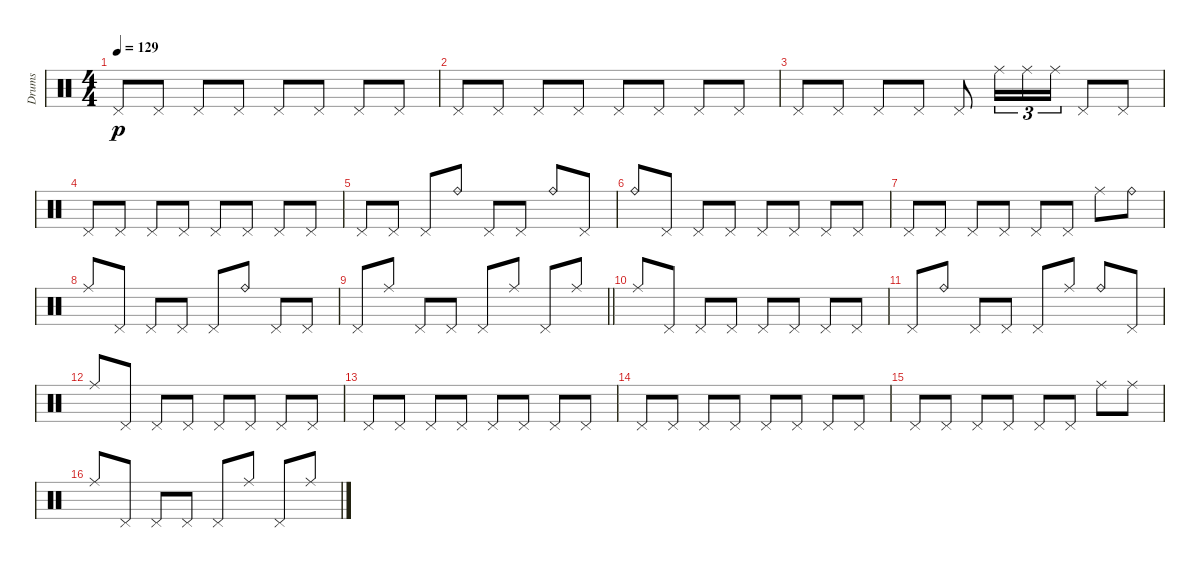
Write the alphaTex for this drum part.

\track ("Drums" "Drums") {instrument percussion}
\staff {score}
\articulation defaults
\ts (4 4)
\tempo 129
\clef neutral
\ks c "Pedal Hi-Hat (hit)".8{dy p} "Pedal Hi-Hat (hit)".8 "Pedal Hi-Hat (hit)".8 "Pedal Hi-Hat (hit)".8 "Pedal Hi-Hat (hit)".8 "Pedal Hi-Hat (hit)".8 "Pedal Hi-Hat (hit)".8 "Pedal Hi-Hat (hit)".8
|
"Pedal Hi-Hat (hit)".8 "Pedal Hi-Hat (hit)".8 "Pedal Hi-Hat (hit)".8 "Pedal Hi-Hat (hit)".8 "Pedal Hi-Hat (hit)".8 "Pedal Hi-Hat (hit)".8 "Pedal Hi-Hat (hit)".8 "Pedal Hi-Hat (hit)".8 |
"Pedal Hi-Hat (hit)".8 "Pedal Hi-Hat (hit)".8 "Pedal Hi-Hat (hit)".8 "Pedal Hi-Hat (hit)".8 "Pedal Hi-Hat (hit)".8 "Ride (middle)".16{tu (3 2)} "Ride (middle)".16{tu (3 2)} "Ride (middle)".16{tu (3 2)} "Pedal Hi-Hat (hit)".8 "Pedal Hi-Hat (hit)".8 |
"Pedal Hi-Hat (hit)".8 "Pedal Hi-Hat (hit)".8 "Pedal Hi-Hat (hit)".8 "Pedal Hi-Hat (hit)".8 "Pedal Hi-Hat (hit)".8 "Pedal Hi-Hat (hit)".8 "Pedal Hi-Hat (hit)".8 "Pedal Hi-Hat (hit)".8 |
"Pedal Hi-Hat (hit)".8 "Pedal Hi-Hat (hit)".8 "Pedal Hi-Hat (hit)".8 "Ride (bell)".8 "Pedal Hi-Hat (hit)".8 "Pedal Hi-Hat (hit)".8 "Ride (bell)".8 "Pedal Hi-Hat (hit)".8 |
"Ride (bell)".8 "Pedal Hi-Hat (hit)".8 "Pedal Hi-Hat (hit)".8 "Pedal Hi-Hat (hit)".8 "Pedal Hi-Hat (hit)".8 "Pedal Hi-Hat (hit)".8 "Pedal Hi-Hat (hit)".8 "Pedal Hi-Hat (hit)".8 |
"Pedal Hi-Hat (hit)".8 "Pedal Hi-Hat (hit)".8 "Pedal Hi-Hat (hit)".8 "Pedal Hi-Hat (hit)".8 "Pedal Hi-Hat (hit)".8 "Pedal Hi-Hat (hit)".8 "Ride (middle)".8 "Ride (bell)".8 |
"Ride (middle)".8 "Pedal Hi-Hat (hit)".8 "Pedal Hi-Hat (hit)".8 "Pedal Hi-Hat (hit)".8 "Pedal Hi-Hat (hit)".8 "Ride (bell)".8 "Pedal Hi-Hat (hit)".8 "Pedal Hi-Hat (hit)".8 |
\barLineRight lightlight "Pedal Hi-Hat (hit)".8 "Ride (middle)".8 "Pedal Hi-Hat (hit)".8 "Pedal Hi-Hat (hit)".8 "Pedal Hi-Hat (hit)".8 "Ride (middle)".8 "Pedal Hi-Hat (hit)".8 "Ride (middle)".8
|
"Ride (middle)".8 "Pedal Hi-Hat (hit)".8 "Pedal Hi-Hat (hit)".8 "Pedal Hi-Hat (hit)".8 "Pedal Hi-Hat (hit)".8 "Pedal Hi-Hat (hit)".8 "Pedal Hi-Hat (hit)".8 "Pedal Hi-Hat (hit)".8 |
"Pedal Hi-Hat (hit)".8 "Ride (bell)".8 "Pedal Hi-Hat (hit)".8 "Pedal Hi-Hat (hit)".8 "Pedal Hi-Hat (hit)".8 "Ride (middle)".8 "Ride (bell)".8 "Pedal Hi-Hat (hit)".8 |
"Ride (middle)".8 "Pedal Hi-Hat (hit)".8 "Pedal Hi-Hat (hit)".8 "Pedal Hi-Hat (hit)".8 "Pedal Hi-Hat (hit)".8 "Pedal Hi-Hat (hit)".8 "Pedal Hi-Hat (hit)".8 "Pedal Hi-Hat (hit)".8 |
"Pedal Hi-Hat (hit)".8 "Pedal Hi-Hat (hit)".8 "Pedal Hi-Hat (hit)".8 "Pedal Hi-Hat (hit)".8 "Pedal Hi-Hat (hit)".8 "Pedal Hi-Hat (hit)".8 "Pedal Hi-Hat (hit)".8 "Pedal Hi-Hat (hit)".8 |
"Pedal Hi-Hat (hit)".8 "Pedal Hi-Hat (hit)".8 "Pedal Hi-Hat (hit)".8 "Pedal Hi-Hat (hit)".8 "Pedal Hi-Hat (hit)".8 "Pedal Hi-Hat (hit)".8 "Pedal Hi-Hat (hit)".8 "Pedal Hi-Hat (hit)".8 |
"Pedal Hi-Hat (hit)".8 "Pedal Hi-Hat (hit)".8 "Pedal Hi-Hat (hit)".8 "Pedal Hi-Hat (hit)".8 "Pedal Hi-Hat (hit)".8 "Pedal Hi-Hat (hit)".8 "Ride (middle)".8 "Ride (middle)".8 |
"Ride (middle)".8 "Pedal Hi-Hat (hit)".8 "Pedal Hi-Hat (hit)".8 "Pedal Hi-Hat (hit)".8 "Pedal Hi-Hat (hit)".8 "Ride (middle)".8 "Pedal Hi-Hat (hit)".8 "Ride (middle)".8
